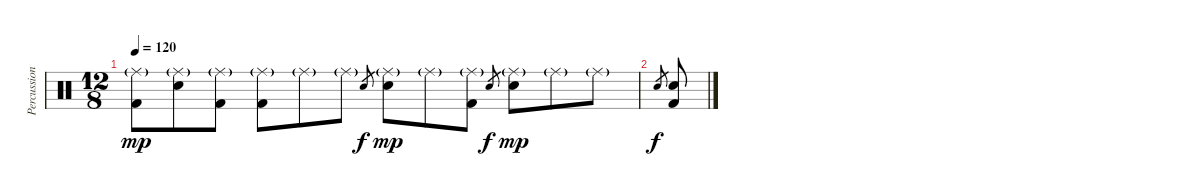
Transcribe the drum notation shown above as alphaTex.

\track ("Percussion" "Percussion") {instrument percussion}
\staff {score}
\articulation defaults
\ts (12 8)
\tempo 120
\clef neutral
\ks c
("Ride (middle)"{g} "Kick (hit) 2").8{dy mp} ("Ride (middle)"{g} "Electric Snare (hit)").8 ("Ride (middle)"{g} "Kick (hit) 2").8 ("Ride (middle)"{g} "Kick (hit) 2").8 "Ride (middle)"{g}.8 "Ride (middle)"{g}.8 "Electric Snare (hit)".8{gr dy f} ("Ride (middle)"{g} "Electric Snare (hit)").8{dy mp} "Ride (middle)"{g}.8 ("Ride (middle)"{g} "Kick (hit) 2").8 "Electric Snare (hit)".8{gr dy f} ("Ride (middle)"{g} "Electric Snare (hit)").8{dy mp} "Ride (middle)"{g}.8 "Ride (middle)"{g}.8 |
"Electric Snare (hit)".8{gr dy f} ("Electric Snare (hit)" "Kick (hit) 2").8
